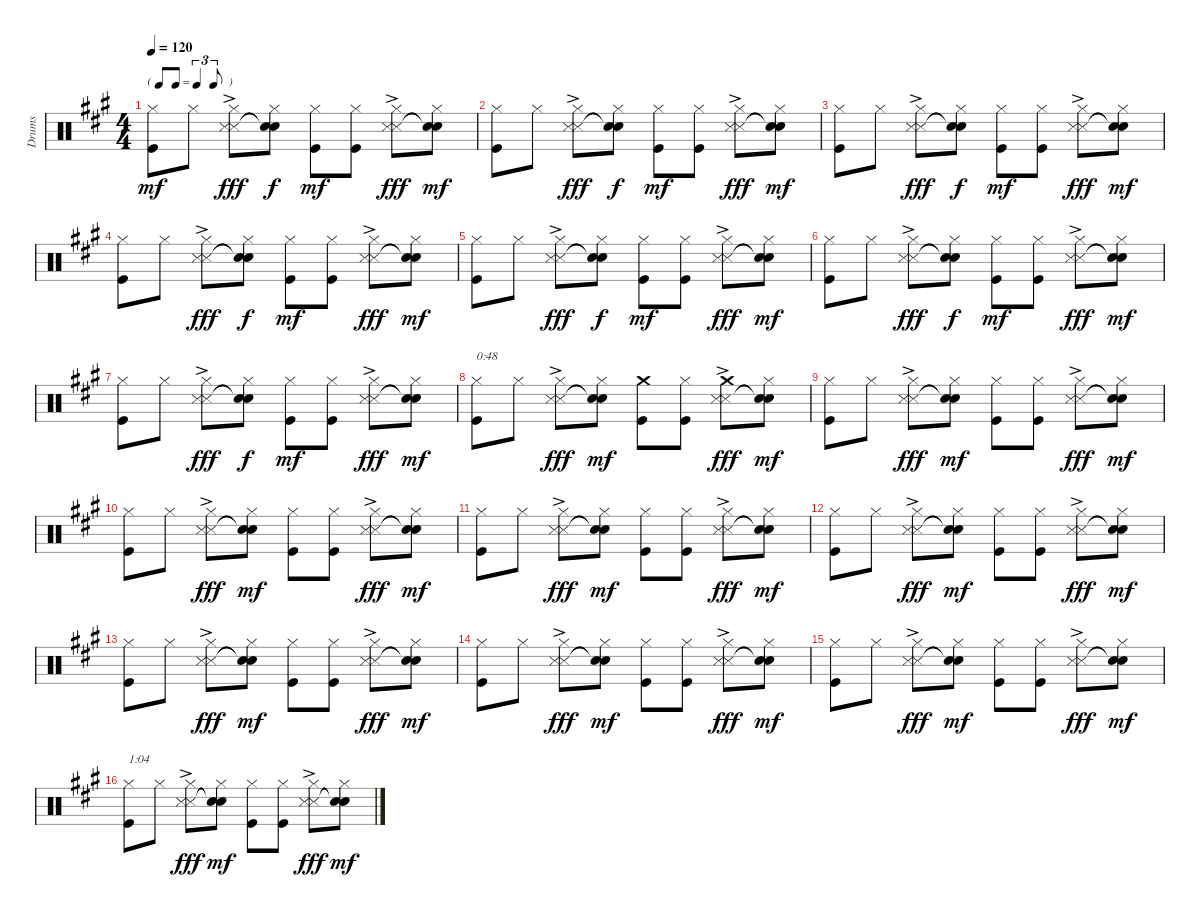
\track ("Drums" "Drums") {instrument percussion}
\staff {score}
\articulation defaults
\ts (4 4)
\tf triplet8th
\tempo 120
\clef neutral
\ks a
("Hi-Hat (closed)" "Kick (hit)").8{dy mf} "Hi-Hat (closed)".8 ("Hi-Hat (closed)" "Snare (side stick) 3"{ac} "Snare (side stick) 3"{ac}).8{dy fff} ("Hi-Hat (closed)" "Snare (hit)"{t} "Snare (hit)"{t}).8{dy f} ("Hi-Hat (closed)" "Kick (hit)").8{dy mf} ("Hi-Hat (closed)" "Kick (hit)").8 ("Hi-Hat (closed)" "Snare (side stick) 3"{ac} "Snare (side stick) 3"{ac}).8{dy fff} ("Hi-Hat (closed)" "Snare (hit)"{t} "Snare (hit)"{t}).8{dy mf} |
("Hi-Hat (closed)" "Kick (hit)").8 "Hi-Hat (closed)".8 ("Hi-Hat (closed)" "Snare (side stick) 3"{ac} "Snare (side stick) 3"{ac}).8{dy fff} ("Hi-Hat (closed)" "Snare (hit)"{t} "Snare (hit)"{t}).8{dy f} ("Hi-Hat (closed)" "Kick (hit)").8{dy mf} ("Hi-Hat (closed)" "Kick (hit)").8 ("Hi-Hat (closed)" "Snare (side stick) 3"{ac} "Snare (side stick) 3"{ac}).8{dy fff} ("Hi-Hat (closed)" "Snare (hit)"{t} "Snare (hit)"{t}).8{dy mf} |
("Hi-Hat (closed)" "Kick (hit)").8 "Hi-Hat (closed)".8 ("Hi-Hat (closed)" "Snare (side stick) 3"{ac} "Snare (side stick) 3"{ac}).8{dy fff} ("Hi-Hat (closed)" "Snare (hit)"{t} "Snare (hit)"{t}).8{dy f} ("Hi-Hat (closed)" "Kick (hit)").8{dy mf} ("Hi-Hat (closed)" "Kick (hit)").8 ("Hi-Hat (closed)" "Snare (side stick) 3"{ac} "Snare (side stick) 3"{ac}).8{dy fff} ("Hi-Hat (closed)" "Snare (hit)"{t} "Snare (hit)"{t}).8{dy mf} |
("Hi-Hat (closed)" "Kick (hit)").8 "Hi-Hat (closed)".8 ("Hi-Hat (closed)" "Snare (side stick) 3"{ac} "Snare (side stick) 3"{ac}).8{dy fff} ("Hi-Hat (closed)" "Snare (hit)"{t} "Snare (hit)"{t}).8{dy f} ("Hi-Hat (closed)" "Kick (hit)").8{dy mf} ("Hi-Hat (closed)" "Kick (hit)").8 ("Hi-Hat (closed)" "Snare (side stick) 3"{ac} "Snare (side stick) 3"{ac}).8{dy fff} ("Hi-Hat (closed)" "Snare (hit)"{t} "Snare (hit)"{t}).8{dy mf} |
("Hi-Hat (closed)" "Kick (hit)").8 "Hi-Hat (closed)".8 ("Hi-Hat (closed)" "Snare (side stick) 3"{ac} "Snare (side stick) 3"{ac}).8{dy fff} ("Hi-Hat (closed)" "Snare (hit)"{t} "Snare (hit)"{t}).8{dy f} ("Hi-Hat (closed)" "Kick (hit)").8{dy mf} ("Hi-Hat (closed)" "Kick (hit)").8 ("Hi-Hat (closed)" "Snare (side stick) 3"{ac} "Snare (side stick) 3"{ac}).8{dy fff} ("Hi-Hat (closed)" "Snare (hit)"{t} "Snare (hit)"{t}).8{dy mf} |
("Hi-Hat (closed)" "Kick (hit)").8 "Hi-Hat (closed)".8 ("Hi-Hat (closed)" "Snare (side stick) 3"{ac} "Snare (side stick) 3"{ac}).8{dy fff} ("Hi-Hat (closed)" "Snare (hit)"{t} "Snare (hit)"{t}).8{dy f} ("Hi-Hat (closed)" "Kick (hit)").8{dy mf} ("Hi-Hat (closed)" "Kick (hit)").8 ("Hi-Hat (closed)" "Snare (side stick) 3"{ac} "Snare (side stick) 3"{ac}).8{dy fff} ("Hi-Hat (closed)" "Snare (hit)"{t} "Snare (hit)"{t}).8{dy mf} |
("Hi-Hat (closed)" "Kick (hit)").8 "Hi-Hat (closed)".8 ("Hi-Hat (closed)" "Snare (side stick) 3"{ac} "Snare (side stick) 3"{ac}).8{dy fff} ("Hi-Hat (closed)" "Snare (hit)"{t} "Snare (hit)"{t}).8{dy f} ("Hi-Hat (closed)" "Kick (hit)").8{dy mf} ("Hi-Hat (closed)" "Kick (hit)").8 ("Hi-Hat (closed)" "Snare (side stick) 3"{ac} "Snare (side stick) 3"{ac}).8{dy fff} ("Hi-Hat (closed)" "Snare (hit)"{t} "Snare (hit)"{t}).8{dy mf} |
("Hi-Hat (closed)" "Kick (hit)").8{txt "0:48"} "Hi-Hat (closed)".8 ("Hi-Hat (closed)" "Snare (side stick) 3"{ac} "Snare (side stick) 3"{ac}).8{dy fff} ("Hi-Hat (closed)" "Snare (hit)"{t} "Snare (hit)"{t}).8{dy mf} ("Crash medium (hit)" "Kick (hit)").8 ("Hi-Hat (closed)" "Kick (hit)").8 ("Crash medium (hit)"{ac} "Snare (side stick) 3"{ac} "Snare (side stick) 3"{ac}).8{dy fff} ("Hi-Hat (closed)" "Snare (hit)"{t} "Snare (hit)"{t}).8{dy mf} |
("Hi-Hat (closed)" "Kick (hit)").8 "Hi-Hat (closed)".8 ("Hi-Hat (closed)" "Snare (side stick) 3"{ac} "Snare (side stick) 3"{ac}).8{dy fff} ("Hi-Hat (closed)" "Snare (hit)"{t} "Snare (hit)"{t}).8{dy mf} ("Hi-Hat (closed)" "Kick (hit)").8 ("Hi-Hat (closed)" "Kick (hit)").8 ("Hi-Hat (closed)" "Snare (side stick) 3"{ac} "Snare (side stick) 3"{ac}).8{dy fff} ("Hi-Hat (closed)" "Snare (hit)"{t} "Snare (hit)"{t}).8{dy mf} |
("Hi-Hat (closed)" "Kick (hit)").8 "Hi-Hat (closed)".8 ("Hi-Hat (closed)" "Snare (side stick) 3"{ac} "Snare (side stick) 3"{ac}).8{dy fff} ("Hi-Hat (closed)" "Snare (hit)"{t} "Snare (hit)"{t}).8{dy mf} ("Hi-Hat (closed)" "Kick (hit)").8 ("Hi-Hat (closed)" "Kick (hit)").8 ("Hi-Hat (closed)" "Snare (side stick) 3"{ac} "Snare (side stick) 3"{ac}).8{dy fff} ("Hi-Hat (closed)" "Snare (hit)"{t} "Snare (hit)"{t}).8{dy mf} |
("Hi-Hat (closed)" "Kick (hit)").8 "Hi-Hat (closed)".8 ("Hi-Hat (closed)" "Snare (side stick) 3"{ac} "Snare (side stick) 3"{ac}).8{dy fff} ("Hi-Hat (closed)" "Snare (hit)"{t} "Snare (hit)"{t}).8{dy mf} ("Hi-Hat (closed)" "Kick (hit)").8 ("Hi-Hat (closed)" "Kick (hit)").8 ("Hi-Hat (closed)" "Snare (side stick) 3"{ac} "Snare (side stick) 3"{ac}).8{dy fff} ("Hi-Hat (closed)" "Snare (hit)"{t} "Snare (hit)"{t}).8{dy mf} |
("Hi-Hat (closed)" "Kick (hit)").8 "Hi-Hat (closed)".8 ("Hi-Hat (closed)" "Snare (side stick) 3"{ac} "Snare (side stick) 3"{ac}).8{dy fff} ("Hi-Hat (closed)" "Snare (hit)"{t} "Snare (hit)"{t}).8{dy mf} ("Hi-Hat (closed)" "Kick (hit)").8 ("Hi-Hat (closed)" "Kick (hit)").8 ("Hi-Hat (closed)" "Snare (side stick) 3"{ac} "Snare (side stick) 3"{ac}).8{dy fff} ("Hi-Hat (closed)" "Snare (hit)"{t} "Snare (hit)"{t}).8{dy mf} |
("Hi-Hat (closed)" "Kick (hit)").8 "Hi-Hat (closed)".8 ("Hi-Hat (closed)" "Snare (side stick) 3"{ac} "Snare (side stick) 3"{ac}).8{dy fff} ("Hi-Hat (closed)" "Snare (hit)"{t} "Snare (hit)"{t}).8{dy mf} ("Hi-Hat (closed)" "Kick (hit)").8 ("Hi-Hat (closed)" "Kick (hit)").8 ("Hi-Hat (closed)" "Snare (side stick) 3"{ac} "Snare (side stick) 3"{ac}).8{dy fff} ("Hi-Hat (closed)" "Snare (hit)"{t} "Snare (hit)"{t}).8{dy mf} |
("Hi-Hat (closed)" "Kick (hit)").8 "Hi-Hat (closed)".8 ("Hi-Hat (closed)" "Snare (side stick) 3"{ac} "Snare (side stick) 3"{ac}).8{dy fff} ("Hi-Hat (closed)" "Snare (hit)"{t} "Snare (hit)"{t}).8{dy mf} ("Hi-Hat (closed)" "Kick (hit)").8 ("Hi-Hat (closed)" "Kick (hit)").8 ("Hi-Hat (closed)" "Snare (side stick) 3"{ac} "Snare (side stick) 3"{ac}).8{dy fff} ("Hi-Hat (closed)" "Snare (hit)"{t} "Snare (hit)"{t}).8{dy mf} |
("Hi-Hat (closed)" "Kick (hit)").8 "Hi-Hat (closed)".8 ("Hi-Hat (closed)" "Snare (side stick) 3"{ac} "Snare (side stick) 3"{ac}).8{dy fff} ("Hi-Hat (closed)" "Snare (hit)"{t} "Snare (hit)"{t}).8{dy mf} ("Hi-Hat (closed)" "Kick (hit)").8 ("Hi-Hat (closed)" "Kick (hit)").8 ("Hi-Hat (closed)" "Snare (side stick) 3"{ac} "Snare (side stick) 3"{ac}).8{dy fff} ("Hi-Hat (closed)" "Snare (hit)"{t} "Snare (hit)"{t}).8{dy mf} |
("Hi-Hat (closed)" "Kick (hit)").8{txt "1:04"} "Hi-Hat (closed)".8 ("Hi-Hat (closed)" "Snare (side stick) 3"{ac} "Snare (side stick) 3"{ac}).8{dy fff} ("Hi-Hat (closed)" "Snare (hit)"{t} "Snare (hit)"{t}).8{dy mf} ("Hi-Hat (closed)" "Kick (hit)").8 ("Hi-Hat (closed)" "Kick (hit)").8 ("Hi-Hat (closed)" "Snare (side stick) 3"{ac} "Snare (side stick) 3"{ac}).8{dy fff} ("Hi-Hat (closed)" "Snare (hit)"{t} "Snare (hit)"{t}).8{dy mf}
